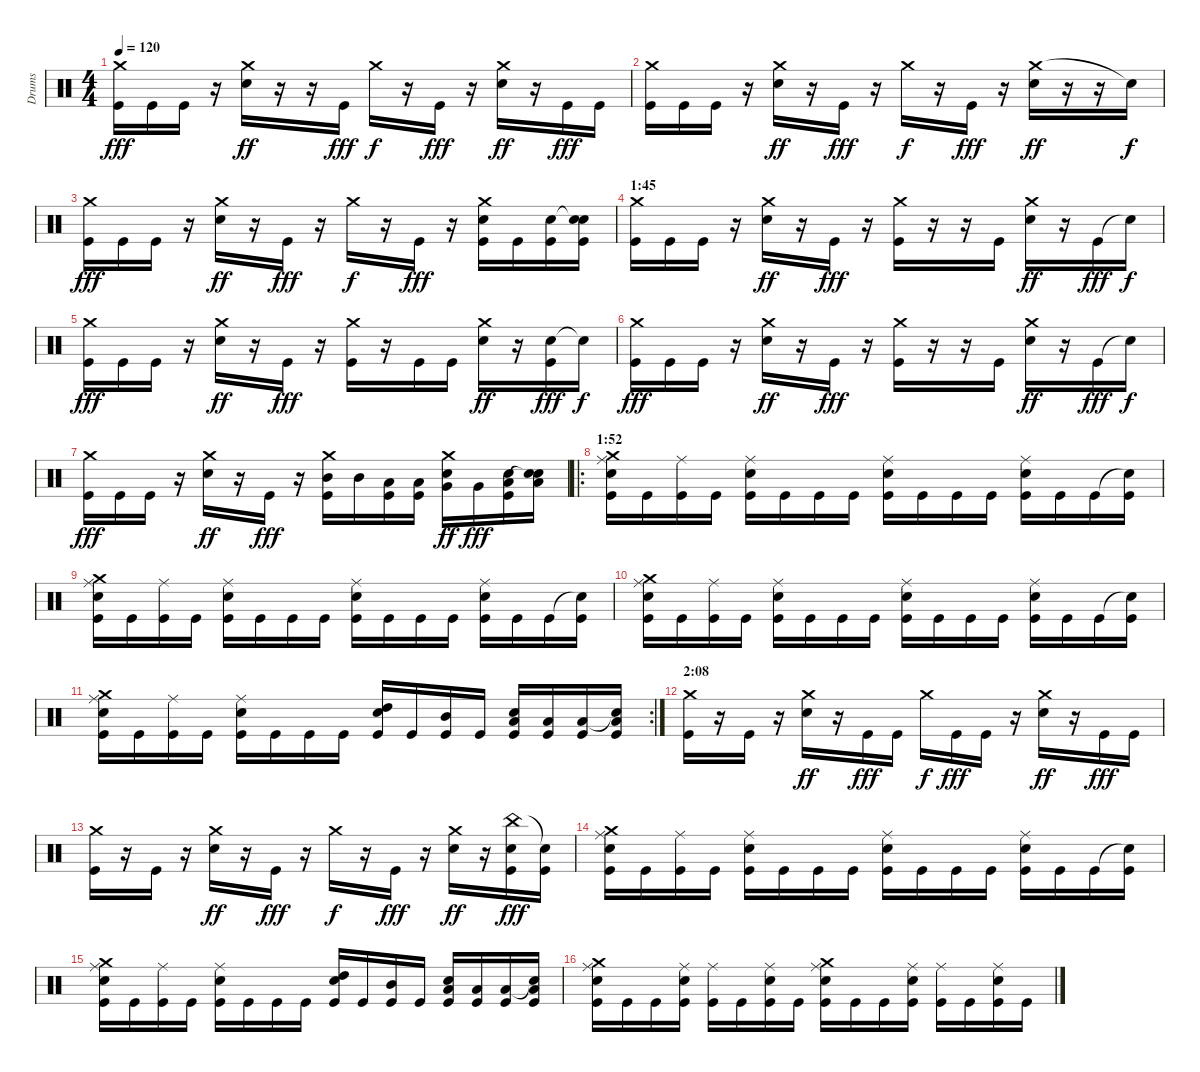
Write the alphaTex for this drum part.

\track ("Drums" "Drums") {instrument percussion}
\staff {score}
\articulation defaults
\ts (4 4)
\tempo 120
\clef neutral
\ks c
("Crash medium (hit)" "Kick (hit)").16{dy fff} "Kick (hit)".16 "Kick (hit)".16 r.16 ("Crash medium (hit)" "Electric Snare (hit)").16{dy ff} r.16 r.16 "Kick (hit)".16{dy fff} "Crash medium (hit)".16{dy f} r.16 "Kick (hit)".16{dy fff} r.16 ("Crash medium (hit)" "Electric Snare (hit)").16{dy ff} r.16 "Kick (hit)".16{dy fff} "Kick (hit)".16 |
("Crash medium (hit)" "Kick (hit)").16 "Kick (hit)".16 "Kick (hit)".16 r.16 ("Crash medium (hit)" "Electric Snare (hit)").16{dy ff} r.16 "Kick (hit)".16{dy fff} r.16 "Crash medium (hit)".16{dy f} r.16 "Kick (hit)".16{dy fff} r.16 ("Crash medium (hit)" "Electric Snare (hit)").16{dy ff} r.16 r.16 "Snare (hit)"{t}.16{dy f} |
("Crash medium (hit)" "Kick (hit)").16{dy fff} "Kick (hit)".16 "Kick (hit)".16 r.16 ("Crash medium (hit)" "Electric Snare (hit)").16{dy ff} r.16 "Kick (hit)".16{dy fff} r.16 "Crash medium (hit)".16{dy f} r.16 "Kick (hit)".16{dy fff} r.16 ("Crash medium (hit)" "Electric Snare (hit)" "Kick (hit)").16 "Kick (hit)".16 ("Electric Snare (hit)" "Kick (hit)").16 ("Snare (hit)"{t} "Electric Snare (hit)" "Kick (hit)").16 |
\section ("" "1:45")
("Crash medium (hit)" "Kick (hit)").16 "Kick (hit)".16 "Kick (hit)".16 r.16 ("Crash medium (hit)" "Electric Snare (hit)").16{dy ff} r.16 "Kick (hit)".16{dy fff} r.16 ("Crash medium (hit)" "Kick (hit)").16 r.16 r.16 "Kick (hit)".16 ("Crash medium (hit)" "Electric Snare (hit)").16{dy ff} r.16 "Kick (hit)".16{dy fff} "Snare (hit)"{t}.16{dy f} |
("Crash medium (hit)" "Kick (hit)").16{dy fff} "Kick (hit)".16 "Kick (hit)".16 r.16 ("Crash medium (hit)" "Electric Snare (hit)").16{dy ff} r.16 "Kick (hit)".16{dy fff} r.16 ("Crash medium (hit)" "Kick (hit)").16 r.16 "Kick (hit)".16 "Kick (hit)".16 ("Crash medium (hit)" "Electric Snare (hit)").16{dy ff} r.16 ("Electric Snare (hit)" "Kick (hit)").16{dy fff} "Snare (hit)"{t}.16{dy f} |
("Crash medium (hit)" "Kick (hit)").16{dy fff} "Kick (hit)".16 "Kick (hit)".16 r.16 ("Crash medium (hit)" "Electric Snare (hit)").16{dy ff} r.16 "Kick (hit)".16{dy fff} r.16 ("Crash medium (hit)" "Kick (hit)").16 r.16 r.16 "Kick (hit)".16 ("Crash medium (hit)" "Electric Snare (hit)").16{dy ff} r.16 "Kick (hit)".16{dy fff} "Snare (hit)"{t}.16{dy f} |
("Crash medium (hit)" "Kick (hit)").16{dy fff} "Kick (hit)".16 "Kick (hit)".16 r.16 ("Crash medium (hit)" "Electric Snare (hit)").16{dy ff} r.16 "Kick (hit)".16{dy fff} r.16 ("Crash medium (hit)" "Mid Tom (hit)" "Kick (hit)").16 "Mid Tom (hit)".16 ("Low Tom (hit)" "Kick (hit)").16 ("Low Tom (hit)" "Kick (hit)").16 ("Crash medium (hit)" "Very Low Tom (hit)" "Electric Snare (hit)").16{dy ff} "Very Low Tom (hit)".16{dy fff} ("Low Floor Tom (hit)" "Electric Snare (hit)" "Kick (hit)").16 ("Snare (hit)"{t} "Low Floor Tom (hit)" "Electric Snare (hit)").16 |
\ro
\section ("" "1:52")
("Ride (middle)" "Crash medium (hit)" "Snare (hit) 2" "Kick (hit)").16 "Kick (hit)".16 ("Ride (middle)" "Kick (hit)").16 "Kick (hit)".16 ("Ride (middle)" "Snare (hit) 2" "Kick (hit)").16 "Kick (hit)".16 "Kick (hit)".16 "Kick (hit)".16 ("Ride (middle)" "Snare (hit) 2" "Kick (hit)").16 "Kick (hit)".16 "Kick (hit)".16 "Kick (hit)".16 ("Ride (middle)" "Snare (hit) 2" "Kick (hit)").16 "Kick (hit)".16 "Kick (hit)".16 ("Snare (hit)"{t} "Kick (hit)").16 |
("Ride (middle)" "Crash medium (hit)" "Snare (hit) 2" "Kick (hit)").16 "Kick (hit)".16 ("Ride (middle)" "Kick (hit)").16 "Kick (hit)".16 ("Ride (middle)" "Snare (hit) 2" "Kick (hit)").16 "Kick (hit)".16 "Kick (hit)".16 "Kick (hit)".16 ("Ride (middle)" "Snare (hit) 2" "Kick (hit)").16 "Kick (hit)".16 "Kick (hit)".16 "Kick (hit)".16 ("Ride (middle)" "Snare (hit) 2" "Kick (hit)").16 "Kick (hit)".16 "Kick (hit)".16 ("Snare (hit)"{t} "Kick (hit)").16 |
("Ride (middle)" "Crash medium (hit)" "Snare (hit) 2" "Kick (hit)").16 "Kick (hit)".16 ("Ride (middle)" "Kick (hit)").16 "Kick (hit)".16 ("Ride (middle)" "Snare (hit) 2" "Kick (hit)").16 "Kick (hit)".16 "Kick (hit)".16 "Kick (hit)".16 ("Ride (middle)" "Snare (hit) 2" "Kick (hit)").16 "Kick (hit)".16 "Kick (hit)".16 "Kick (hit)".16 ("Ride (middle)" "Snare (hit) 2" "Kick (hit)").16 "Kick (hit)".16 "Kick (hit)".16 ("Snare (hit)"{t} "Kick (hit)").16 |
\rc 2
("Ride (middle)" "Crash medium (hit)" "Snare (hit) 2" "Kick (hit)").16 "Kick (hit)".16 ("Ride (middle)" "Kick (hit)").16 "Kick (hit)".16 ("Ride (middle)" "Snare (hit) 2" "Kick (hit)").16 "Kick (hit)".16 "Kick (hit)".16 "Kick (hit)".16 ("High Tom (hit)" "Snare (hit) 2" "Kick (hit)").16 "Kick (hit)".16 ("Mid Tom (hit)" "Kick (hit)").16 "Kick (hit)".16 ("Low Tom (hit)" "Snare (hit) 2" "Kick (hit)").16 ("Low Tom (hit)" "Kick (hit)").16 ("Low Floor Tom (hit)" "Kick (hit)").16 ("Snare (hit)"{t} "Low Floor Tom (hit)" "Kick (hit)").16 |
\section ("" "2:08")
("Crash medium (hit)" "Kick (hit)").16 r.16 "Kick (hit)".16 r.16 ("Crash medium (hit)" "Electric Snare (hit)").16{dy ff} r.16 "Kick (hit)".16{dy fff} "Kick (hit)".16 "Crash medium (hit)".16{dy f} "Kick (hit)".16{dy fff} "Kick (hit)".16 r.16 ("Crash medium (hit)" "Electric Snare (hit)").16{dy ff} r.16 "Kick (hit)".16{dy fff} "Kick (hit)".16 |
("Crash medium (hit)" "Kick (hit)").16 r.16 "Kick (hit)".16 r.16 ("Crash medium (hit)" "Electric Snare (hit)").16{dy ff} r.16 "Kick (hit)".16{dy fff} r.16 "Crash medium (hit)".16{dy f} r.16 "Kick (hit)".16{dy fff} r.16 ("Crash medium (hit)" "Electric Snare (hit)").16{dy ff} r.16 ("China (hit)" "Electric Snare (hit)" "Kick (hit)").16{dy fff} ("Snare (hit)"{t} "Kick (hit)").16 |
("Ride (middle)" "Crash medium (hit)" "Snare (hit) 2" "Kick (hit)").16 "Kick (hit)".16 ("Ride (middle)" "Kick (hit)").16 "Kick (hit)".16 ("Ride (middle)" "Snare (hit) 2" "Kick (hit)").16 "Kick (hit)".16 "Kick (hit)".16 "Kick (hit)".16 ("Ride (middle)" "Snare (hit) 2" "Kick (hit)").16 "Kick (hit)".16 "Kick (hit)".16 "Kick (hit)".16 ("Ride (middle)" "Snare (hit) 2" "Kick (hit)").16 "Kick (hit)".16 "Kick (hit)".16 ("Snare (hit)"{t} "Kick (hit)").16 |
("Ride (middle)" "Crash medium (hit)" "Snare (hit) 2" "Kick (hit)").16 "Kick (hit)".16 ("Ride (middle)" "Kick (hit)").16 "Kick (hit)".16 ("Ride (middle)" "Snare (hit) 2" "Kick (hit)").16 "Kick (hit)".16 "Kick (hit)".16 "Kick (hit)".16 ("High Tom (hit)" "Snare (hit) 2" "Kick (hit)").16 "Kick (hit)".16 ("Mid Tom (hit)" "Kick (hit)").16 "Kick (hit)".16 ("Low Tom (hit)" "Snare (hit) 2" "Kick (hit)").16 ("Low Tom (hit)" "Kick (hit)").16 ("Low Floor Tom (hit)" "Kick (hit)").16 ("Snare (hit)"{t} "Low Floor Tom (hit)" "Kick (hit)").16 |
("Crash medium (hit)" "Ride (middle)" "Snare (hit) 2" "Kick (hit)").16 "Kick (hit)".16 "Kick (hit)".16 ("Ride (middle)" "Snare (hit) 2" "Kick (hit)").16 ("Ride (middle)" "Kick (hit)").16 "Kick (hit)".16 ("Ride (middle)" "Snare (hit) 2" "Kick (hit)").16 "Kick (hit)".16 ("Crash medium (hit)" "Ride (middle)" "Snare (hit) 2" "Kick (hit)").16 "Kick (hit)".16 "Kick (hit)".16 ("Ride (middle)" "Snare (hit) 2" "Kick (hit)").16 ("Ride (middle)" "Kick (hit)").16 "Kick (hit)".16 ("Ride (middle)" "Snare (hit) 2" "Kick (hit)").16 "Kick (hit)".16
